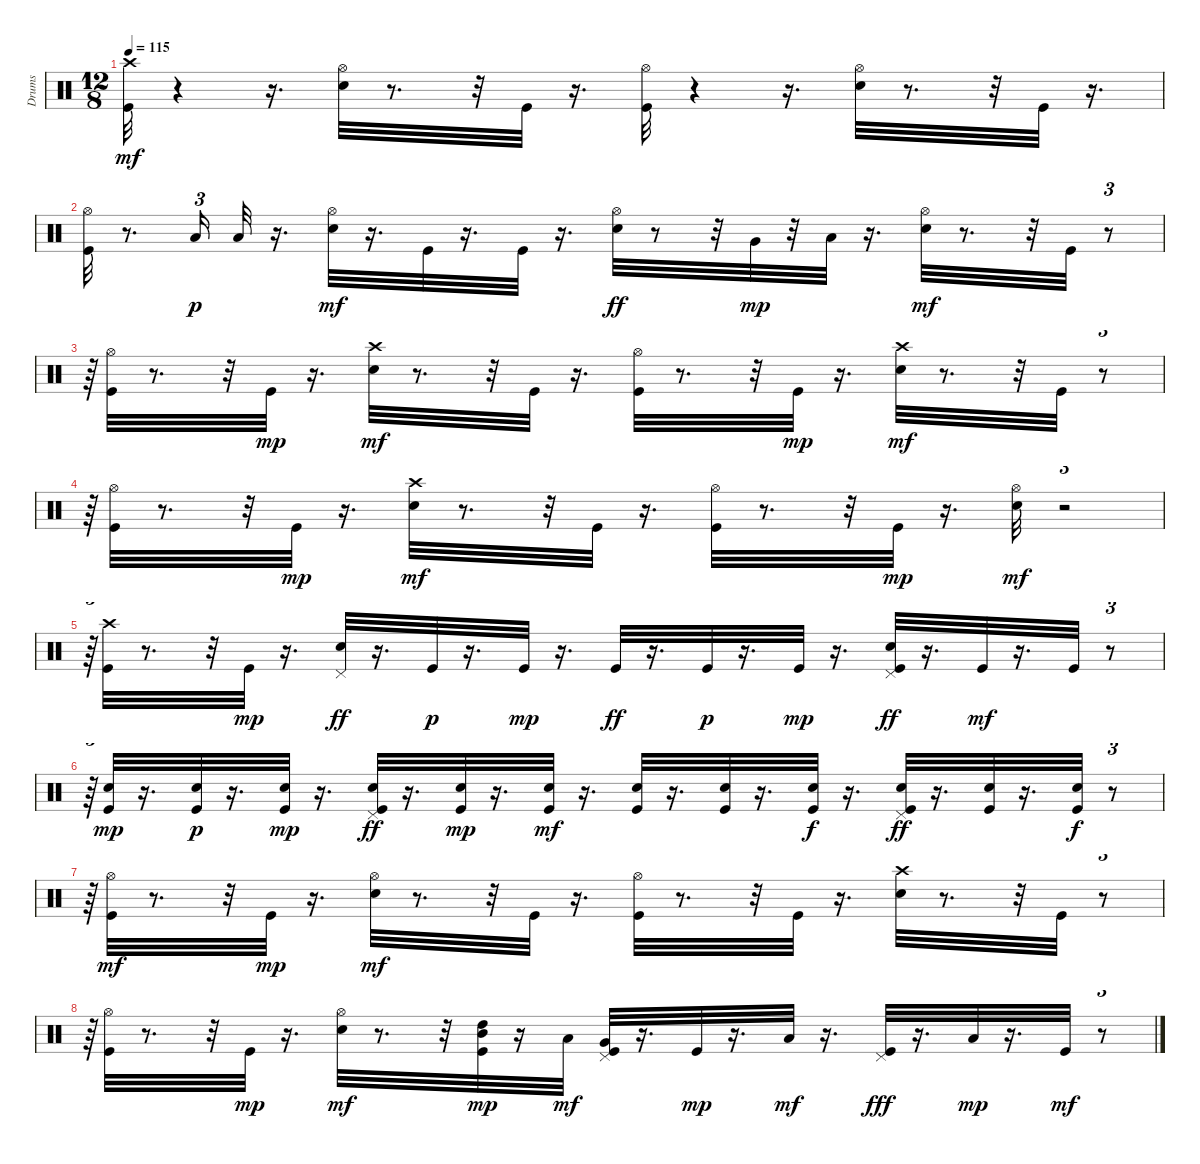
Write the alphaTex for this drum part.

\track ("Drums" "Drums") {instrument percussion}
\staff {score}
\articulation defaults
\ts (12 8)
\tempo 115
\clef neutral
\ks c
("Kick (hit)" "Crash high (hit)").32{dy mf} r.4 r.16{d} ("Electric Snare (hit)" "Hi-Hat (open)").32 r.8{d} r.32 "Kick (hit)".32 r.16{d} ("Kick (hit)" "Hi-Hat (open)").32 r.4 r.16{d} ("Electric Snare (hit)" "Hi-Hat (open)").32 r.8{d} r.32 "Kick (hit)".32 r.16{d} |
("Kick (hit)" "Hi-Hat (open)").32 r.8{d} "Low Tom (hit)".16{tu (3 2) dy p} "Low Tom (hit)".32 r.16{d} ("Electric Snare (hit)" "Hi-Hat (open)").32{dy mf} r.16{d} "Kick (hit)".32 r.16{d} "Kick (hit)".32 r.16{d} ("Hi-Hat (open)" "Electric Snare (hit)").32{dy ff} r.8 r.32 "Very Low Tom (hit)".32{dy mp} r.32 "Low Floor Tom (hit)".32 r.16{d} ("Electric Snare (hit)" "Hi-Hat (open)").32{dy mf} r.8{d} r.32 "Kick (hit)".32 r.8{tu (3 2)} |
r.64{tu (3 2)} ("Kick (hit)" "Hi-Hat (open)").32 r.8{d} r.32 "Kick (hit)".32{dy mp} r.16{d} ("Electric Snare (hit)" "Crash high (hit)").32{dy mf} r.8{d} r.32 "Kick (hit)".32 r.16{d} ("Kick (hit)" "Hi-Hat (open)").32 r.8{d} r.32 "Kick (hit)".32{dy mp} r.16{d} ("Electric Snare (hit)" "Crash high (hit)").32{dy mf} r.8{d} r.32 "Kick (hit)".32 r.8{tu (3 2)} |
r.64{tu (3 2)} ("Kick (hit)" "Hi-Hat (open)").32 r.8{d} r.32 "Kick (hit)".32{dy mp} r.16{d} ("Electric Snare (hit)" "Crash high (hit)").32{dy mf} r.8{d} r.32 "Kick (hit)".32 r.16{d} ("Kick (hit)" "Hi-Hat (open)").32 r.8{d} r.32 "Kick (hit)".32{dy mp} r.16{d} ("Electric Snare (hit)" "Hi-Hat (open)").32{dy mf} r.2{tu (3 2)} |
r.64{tu (3 2)} ("Kick (hit)" "Crash high (hit)").32 r.8{d} r.32 "Kick (hit)".32{dy mp} r.16{d} ("Electric Snare (hit)" "Pedal Hi-Hat (hit)").32{dy ff} r.16{d} "Kick (hit)".32{dy p} r.16{d} "Kick (hit)".32{dy mp} r.16{d} "Kick (hit)".32{dy ff} r.16{d} "Kick (hit)".32{dy p} r.16{d} "Kick (hit)".32{dy mp} r.16{d} ("Kick (hit)" "Electric Snare (hit)" "Pedal Hi-Hat (hit)").32{dy ff} r.16{d} "Kick (hit)".32{dy mf} r.16{d} "Kick (hit)".32 r.8{tu (3 2)} |
r.64{tu (3 2)} ("Kick (hit)" "Electric Snare (hit)").32{dy mp} r.16{d} ("Kick (hit)" "Electric Snare (hit)").32{dy p} r.16{d} ("Kick (hit)" "Electric Snare (hit)").32{dy mp} r.16{d} ("Kick (hit)" "Electric Snare (hit)" "Pedal Hi-Hat (hit)").32{dy ff} r.16{d} ("Kick (hit)" "Electric Snare (hit)").32{dy mp} r.16{d} ("Kick (hit)" "Electric Snare (hit)").32{dy mf} r.16{d} ("Kick (hit)" "Electric Snare (hit)").32 r.16{d} ("Kick (hit)" "Electric Snare (hit)").32 r.16{d} ("Kick (hit)" "Electric Snare (hit)").32{dy f} r.16{d} ("Kick (hit)" "Electric Snare (hit)" "Pedal Hi-Hat (hit)").32{dy ff} r.16{d} ("Kick (hit)" "Electric Snare (hit)").32 r.16{d} ("Kick (hit)" "Electric Snare (hit)").32{dy f} r.8{tu (3 2)} |
r.64{tu (3 2)} ("Kick (hit)" "Hi-Hat (open)").32{dy mf} r.8{d} r.32 "Kick (hit)".32{dy mp} r.16{d} ("Electric Snare (hit)" "Hi-Hat (open)").32{dy mf} r.8{d} r.32 "Kick (hit)".32 r.16{d} ("Kick (hit)" "Hi-Hat (open)").32 r.8{d} r.32 "Kick (hit)".32 r.16{d} ("Electric Snare (hit)" "Crash high (hit)").32 r.8{d} r.32 "Kick (hit)".32 r.8{tu (3 2)} |
r.64{tu (3 2)} ("Kick (hit)" "Hi-Hat (open)").32 r.8{d} r.32 "Kick (hit)".32{dy mp} r.16{d} ("Electric Snare (hit)" "Hi-Hat (open)").32{dy mf} r.8{d} r.32 ("Mid Tom (hit)" "Kick (hit)" "High Tom (hit)").32{dy mp} r.16 "Low Tom (hit)".32{dy mf} ("Kick (hit)" "Pedal Hi-Hat (hit)" "Very Low Tom (hit)").32 r.16{d} "Kick (hit)".32{dy mp} r.16{d} "Low Floor Tom (hit)".32{dy mf} r.16{d} ("Pedal Hi-Hat (hit)" "Kick (hit)").32{dy fff} r.16{d} "Low Floor Tom (hit)".32{dy mp} r.16{d} "Kick (hit)".32{dy mf} r.8{tu (3 2)}
